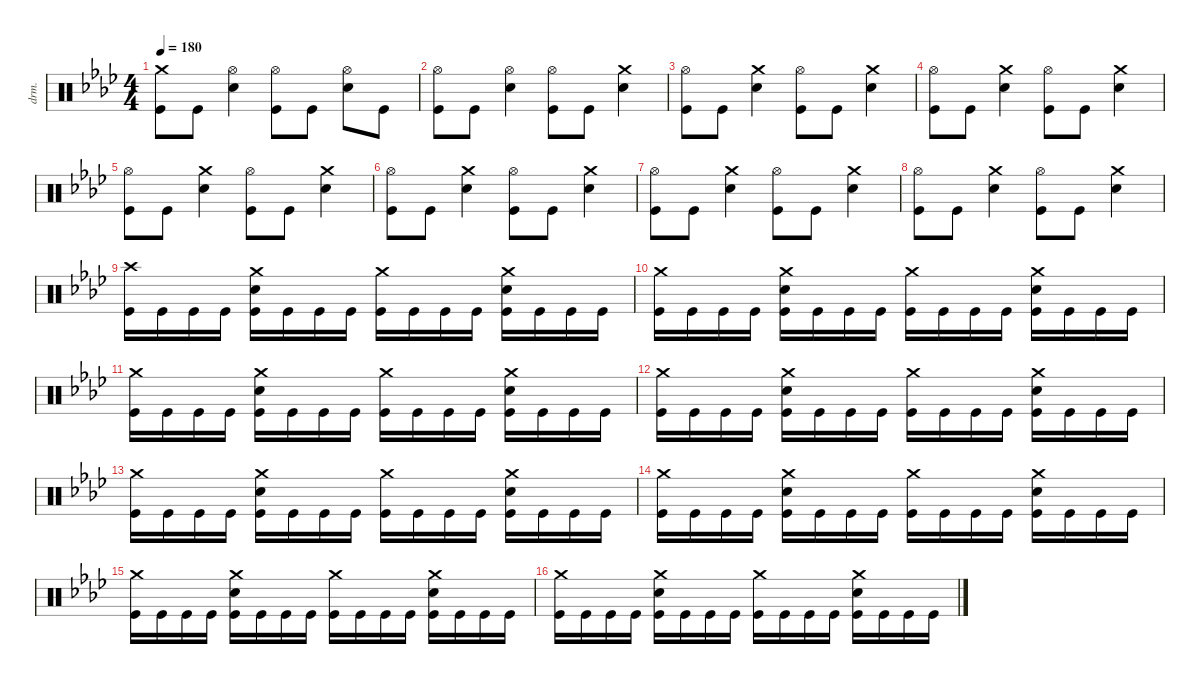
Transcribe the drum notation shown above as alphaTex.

\defaultSystemsLayout 4
\hideDynamics
\bracketExtendMode nobrackets
\track ("Percussion" "drm.") {instrument percussion}
\staff {score}
\articulation defaults
\ts (4 4)
\tempo 180
\clef neutral
\ks fminor
("Crash medium (hit)"{acc forcenatural} "Kick (hit)"{acc forcenatural}).8{dy f beam Down} "Kick (hit)"{acc forcenatural}.8{beam Down} ("Hi-Hat (open)"{acc forcenatural} "Snare (hit) 2"{acc forcenatural}).4{beam Down} ("Hi-Hat (open)"{acc forcenatural} "Kick (hit)"{acc forcenatural}).8{beam Down} "Kick (hit)"{acc forcenatural}.8{beam Down} ("Hi-Hat (open)"{acc forcenatural} "Snare (hit) 2"{acc forcenatural}).8{beam Down} "Kick (hit)"{acc forcenatural}.8{beam Down} |
("Hi-Hat (open)"{acc forcenatural} "Kick (hit)"{acc forcenatural}).8{beam Down} "Kick (hit)"{acc forcenatural}.8{beam Down} ("Hi-Hat (open)"{acc forcenatural} "Snare (hit) 2"{acc forcenatural}).4{beam Down} ("Hi-Hat (open)"{acc forcenatural} "Kick (hit)"{acc forcenatural}).8{beam Down} "Kick (hit)"{acc forcenatural}.8{beam Down} ("Crash medium (hit)"{acc forcenatural} "Snare (hit) 2"{acc forcenatural}).4{beam Down} |
("Hi-Hat (open)"{acc forcenatural} "Kick (hit)"{acc forcenatural}).8{beam Down} "Kick (hit)"{acc forcenatural}.8{beam Down} ("Crash medium (hit)"{acc forcenatural} "Snare (hit) 2"{acc forcenatural}).4{beam Down} ("Hi-Hat (open)"{acc forcenatural} "Kick (hit)"{acc forcenatural}).8{beam Down} "Kick (hit)"{acc forcenatural}.8{beam Down} ("Crash medium (hit)"{acc forcenatural} "Snare (hit) 2"{acc forcenatural}).4{beam Down} |
("Hi-Hat (open)"{acc forcenatural} "Kick (hit)"{acc forcenatural}).8{beam Down} "Kick (hit)"{acc forcenatural}.8{beam Down} ("Crash medium (hit)"{acc forcenatural} "Snare (hit) 2"{acc forcenatural}).4{beam Down} ("Hi-Hat (open)"{acc forcenatural} "Kick (hit)"{acc forcenatural}).8{beam Down} "Kick (hit)"{acc forcenatural}.8{beam Down} ("Crash medium (hit)"{acc forcenatural} "Snare (hit) 2"{acc forcenatural}).4{beam Down} |
("Hi-Hat (open)"{acc forcenatural} "Kick (hit)"{acc forcenatural}).8{beam Down} "Kick (hit)"{acc forcenatural}.8{beam Down} ("Crash medium (hit)"{acc forcenatural} "Snare (hit) 2"{acc forcenatural}).4{beam Down} ("Hi-Hat (open)"{acc forcenatural} "Kick (hit)"{acc forcenatural}).8{beam Down} "Kick (hit)"{acc forcenatural}.8{beam Down} ("Crash medium (hit)"{acc forcenatural} "Snare (hit) 2"{acc forcenatural}).4{beam Down} |
("Hi-Hat (open)"{acc forcenatural} "Kick (hit)"{acc forcenatural}).8{beam Down} "Kick (hit)"{acc forcenatural}.8{beam Down} ("Crash medium (hit)"{acc forcenatural} "Snare (hit) 2"{acc forcenatural}).4{beam Down} ("Hi-Hat (open)"{acc forcenatural} "Kick (hit)"{acc forcenatural}).8{beam Down} "Kick (hit)"{acc forcenatural}.8{beam Down} ("Crash medium (hit)"{acc forcenatural} "Snare (hit) 2"{acc forcenatural}).4{beam Down} |
("Hi-Hat (open)"{acc forcenatural} "Kick (hit)"{acc forcenatural}).8{beam Down} "Kick (hit)"{acc forcenatural}.8{beam Down} ("Crash medium (hit)"{acc forcenatural} "Snare (hit) 2"{acc forcenatural}).4{beam Down} ("Hi-Hat (open)"{acc forcenatural} "Kick (hit)"{acc forcenatural}).8{beam Down} "Kick (hit)"{acc forcenatural}.8{beam Down} ("Crash medium (hit)"{acc forcenatural} "Snare (hit) 2"{acc forcenatural}).4{beam Down} |
("Hi-Hat (open)"{acc forcenatural} "Kick (hit)"{acc forcenatural}).8{beam Down} "Kick (hit)"{acc forcenatural}.8{beam Down} ("Crash medium (hit)"{acc forcenatural} "Snare (hit) 2"{acc forcenatural}).4{beam Down} ("Hi-Hat (open)"{acc forcenatural} "Kick (hit)"{acc forcenatural}).8{beam Down} "Kick (hit)"{acc forcenatural}.8{beam Down} ("Crash medium (hit)"{acc forcenatural} "Snare (hit) 2"{acc forcenatural}).4{beam Down} |
("Crash high (hit)"{acc forcenatural} "Kick (hit)"{acc forcenatural}).16{beam Down} "Kick (hit)"{acc forcenatural}.16{beam Down} "Kick (hit)"{acc forcenatural}.16{beam Down} "Kick (hit)"{acc forcenatural}.16{beam Down} ("Crash medium (hit)"{acc forcenatural} "Snare (hit) 2"{acc forcenatural} "Kick (hit)"{acc forcenatural}).16{beam Down} "Kick (hit)"{acc forcenatural}.16{beam Down} "Kick (hit)"{acc forcenatural}.16{beam Down} "Kick (hit)"{acc forcenatural}.16{beam Down} ("Crash medium (hit)"{acc forcenatural} "Kick (hit)"{acc forcenatural}).16{beam Down} "Kick (hit)"{acc forcenatural}.16{beam Down} "Kick (hit)"{acc forcenatural}.16{beam Down} "Kick (hit)"{acc forcenatural}.16{beam Down} ("Crash medium (hit)"{acc forcenatural} "Snare (hit) 2"{acc forcenatural} "Kick (hit)"{acc forcenatural}).16{beam Down} "Kick (hit)"{acc forcenatural}.16{beam Down} "Kick (hit)"{acc forcenatural}.16{beam Down} "Kick (hit)"{acc forcenatural}.16{beam Down} |
("Crash medium (hit)"{acc forcenatural} "Kick (hit)"{acc forcenatural}).16{beam Down} "Kick (hit)"{acc forcenatural}.16{beam Down} "Kick (hit)"{acc forcenatural}.16{beam Down} "Kick (hit)"{acc forcenatural}.16{beam Down} ("Crash medium (hit)"{acc forcenatural} "Snare (hit) 2"{acc forcenatural} "Kick (hit)"{acc forcenatural}).16{beam Down} "Kick (hit)"{acc forcenatural}.16{beam Down} "Kick (hit)"{acc forcenatural}.16{beam Down} "Kick (hit)"{acc forcenatural}.16{beam Down} ("Crash medium (hit)"{acc forcenatural} "Kick (hit)"{acc forcenatural}).16{beam Down} "Kick (hit)"{acc forcenatural}.16{beam Down} "Kick (hit)"{acc forcenatural}.16{beam Down} "Kick (hit)"{acc forcenatural}.16{beam Down} ("Crash medium (hit)"{acc forcenatural} "Snare (hit) 2"{acc forcenatural} "Kick (hit)"{acc forcenatural}).16{beam Down} "Kick (hit)"{acc forcenatural}.16{beam Down} "Kick (hit)"{acc forcenatural}.16{beam Down} "Kick (hit)"{acc forcenatural}.16{beam Down} |
("Crash medium (hit)"{acc forcenatural} "Kick (hit)"{acc forcenatural}).16{beam Down} "Kick (hit)"{acc forcenatural}.16{beam Down} "Kick (hit)"{acc forcenatural}.16{beam Down} "Kick (hit)"{acc forcenatural}.16{beam Down} ("Crash medium (hit)"{acc forcenatural} "Snare (hit) 2"{acc forcenatural} "Kick (hit)"{acc forcenatural}).16{beam Down} "Kick (hit)"{acc forcenatural}.16{beam Down} "Kick (hit)"{acc forcenatural}.16{beam Down} "Kick (hit)"{acc forcenatural}.16{beam Down} ("Crash medium (hit)"{acc forcenatural} "Kick (hit)"{acc forcenatural}).16{beam Down} "Kick (hit)"{acc forcenatural}.16{beam Down} "Kick (hit)"{acc forcenatural}.16{beam Down} "Kick (hit)"{acc forcenatural}.16{beam Down} ("Crash medium (hit)"{acc forcenatural} "Snare (hit) 2"{acc forcenatural} "Kick (hit)"{acc forcenatural}).16{beam Down} "Kick (hit)"{acc forcenatural}.16{beam Down} "Kick (hit)"{acc forcenatural}.16{beam Down} "Kick (hit)"{acc forcenatural}.16{beam Down} |
("Crash medium (hit)"{acc forcenatural} "Kick (hit)"{acc forcenatural}).16{beam Down} "Kick (hit)"{acc forcenatural}.16{beam Down} "Kick (hit)"{acc forcenatural}.16{beam Down} "Kick (hit)"{acc forcenatural}.16{beam Down} ("Crash medium (hit)"{acc forcenatural} "Snare (hit) 2"{acc forcenatural} "Kick (hit)"{acc forcenatural}).16{beam Down} "Kick (hit)"{acc forcenatural}.16{beam Down} "Kick (hit)"{acc forcenatural}.16{beam Down} "Kick (hit)"{acc forcenatural}.16{beam Down} ("Crash medium (hit)"{acc forcenatural} "Kick (hit)"{acc forcenatural}).16{beam Down} "Kick (hit)"{acc forcenatural}.16{beam Down} "Kick (hit)"{acc forcenatural}.16{beam Down} "Kick (hit)"{acc forcenatural}.16{beam Down} ("Crash medium (hit)"{acc forcenatural} "Snare (hit) 2"{acc forcenatural} "Kick (hit)"{acc forcenatural}).16{beam Down} "Kick (hit)"{acc forcenatural}.16{beam Down} "Kick (hit)"{acc forcenatural}.16{beam Down} "Kick (hit)"{acc forcenatural}.16{beam Down} |
("Crash medium (hit)"{acc forcenatural} "Kick (hit)"{acc forcenatural}).16{beam Down} "Kick (hit)"{acc forcenatural}.16{beam Down} "Kick (hit)"{acc forcenatural}.16{beam Down} "Kick (hit)"{acc forcenatural}.16{beam Down} ("Crash medium (hit)"{acc forcenatural} "Snare (hit) 2"{acc forcenatural} "Kick (hit)"{acc forcenatural}).16{beam Down} "Kick (hit)"{acc forcenatural}.16{beam Down} "Kick (hit)"{acc forcenatural}.16{beam Down} "Kick (hit)"{acc forcenatural}.16{beam Down} ("Crash medium (hit)"{acc forcenatural} "Kick (hit)"{acc forcenatural}).16{beam Down} "Kick (hit)"{acc forcenatural}.16{beam Down} "Kick (hit)"{acc forcenatural}.16{beam Down} "Kick (hit)"{acc forcenatural}.16{beam Down} ("Crash medium (hit)"{acc forcenatural} "Snare (hit) 2"{acc forcenatural} "Kick (hit)"{acc forcenatural}).16{beam Down} "Kick (hit)"{acc forcenatural}.16{beam Down} "Kick (hit)"{acc forcenatural}.16{beam Down} "Kick (hit)"{acc forcenatural}.16{beam Down} |
("Crash medium (hit)"{acc forcenatural} "Kick (hit)"{acc forcenatural}).16{beam Down} "Kick (hit)"{acc forcenatural}.16{beam Down} "Kick (hit)"{acc forcenatural}.16{beam Down} "Kick (hit)"{acc forcenatural}.16{beam Down} ("Crash medium (hit)"{acc forcenatural} "Snare (hit) 2"{acc forcenatural} "Kick (hit)"{acc forcenatural}).16{beam Down} "Kick (hit)"{acc forcenatural}.16{beam Down} "Kick (hit)"{acc forcenatural}.16{beam Down} "Kick (hit)"{acc forcenatural}.16{beam Down} ("Crash medium (hit)"{acc forcenatural} "Kick (hit)"{acc forcenatural}).16{beam Down} "Kick (hit)"{acc forcenatural}.16{beam Down} "Kick (hit)"{acc forcenatural}.16{beam Down} "Kick (hit)"{acc forcenatural}.16{beam Down} ("Crash medium (hit)"{acc forcenatural} "Snare (hit) 2"{acc forcenatural} "Kick (hit)"{acc forcenatural}).16{beam Down} "Kick (hit)"{acc forcenatural}.16{beam Down} "Kick (hit)"{acc forcenatural}.16{beam Down} "Kick (hit)"{acc forcenatural}.16{beam Down} |
("Crash medium (hit)"{acc forcenatural} "Kick (hit)"{acc forcenatural}).16{beam Down} "Kick (hit)"{acc forcenatural}.16{beam Down} "Kick (hit)"{acc forcenatural}.16{beam Down} "Kick (hit)"{acc forcenatural}.16{beam Down} ("Crash medium (hit)"{acc forcenatural} "Snare (hit) 2"{acc forcenatural} "Kick (hit)"{acc forcenatural}).16{beam Down} "Kick (hit)"{acc forcenatural}.16{beam Down} "Kick (hit)"{acc forcenatural}.16{beam Down} "Kick (hit)"{acc forcenatural}.16{beam Down} ("Crash medium (hit)"{acc forcenatural} "Kick (hit)"{acc forcenatural}).16{beam Down} "Kick (hit)"{acc forcenatural}.16{beam Down} "Kick (hit)"{acc forcenatural}.16{beam Down} "Kick (hit)"{acc forcenatural}.16{beam Down} ("Crash medium (hit)"{acc forcenatural} "Snare (hit) 2"{acc forcenatural} "Kick (hit)"{acc forcenatural}).16{beam Down} "Kick (hit)"{acc forcenatural}.16{beam Down} "Kick (hit)"{acc forcenatural}.16{beam Down} "Kick (hit)"{acc forcenatural}.16{beam Down} |
("Crash medium (hit)"{acc forcenatural} "Kick (hit)"{acc forcenatural}).16{beam Down} "Kick (hit)"{acc forcenatural}.16{beam Down} "Kick (hit)"{acc forcenatural}.16{beam Down} "Kick (hit)"{acc forcenatural}.16{beam Down} ("Crash medium (hit)"{acc forcenatural} "Snare (hit) 2"{acc forcenatural} "Kick (hit)"{acc forcenatural}).16{beam Down} "Kick (hit)"{acc forcenatural}.16{beam Down} "Kick (hit)"{acc forcenatural}.16{beam Down} "Kick (hit)"{acc forcenatural}.16{beam Down} ("Crash medium (hit)"{acc forcenatural} "Kick (hit)"{acc forcenatural}).16{beam Down} "Kick (hit)"{acc forcenatural}.16{beam Down} "Kick (hit)"{acc forcenatural}.16{beam Down} "Kick (hit)"{acc forcenatural}.16{beam Down} ("Crash medium (hit)"{acc forcenatural} "Snare (hit) 2"{acc forcenatural} "Kick (hit)"{acc forcenatural}).16{beam Down} "Kick (hit)"{acc forcenatural}.16{beam Down} "Kick (hit)"{acc forcenatural}.16{beam Down} "Kick (hit)"{acc forcenatural}.16{beam Down}
